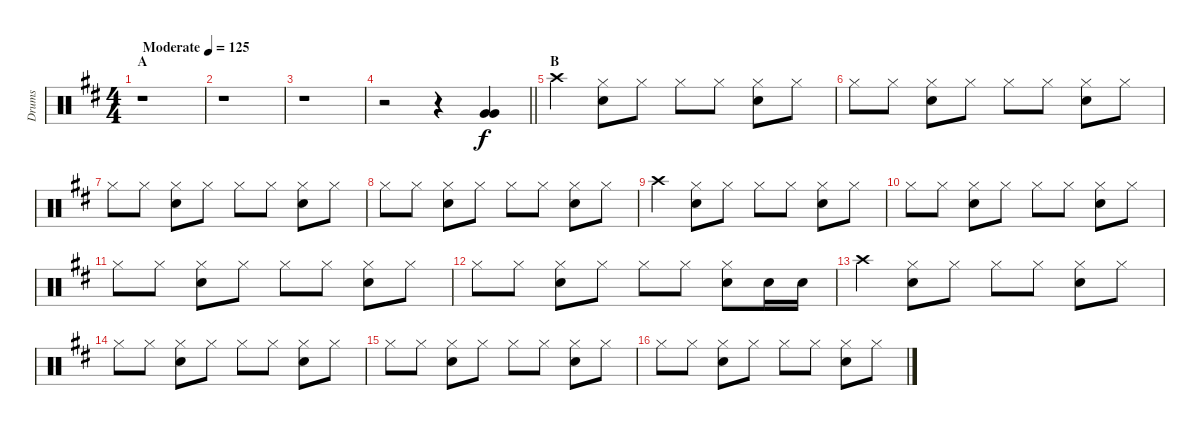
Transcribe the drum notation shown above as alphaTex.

\track ("Drums" "Drums") {instrument percussion}
\staff {score}
\articulation defaults
\ts (4 4)
\section ("" "A")
\tempo (125 "Moderate")
\clef neutral
\ks d
r.1{dy f} |
r.1 |
r.1 |
\barLineRight lightlight
r.2 r.4 ("Very Low Tom (hit)" "Very Low Tom (hit)").4 |
\section ("" "B")
"Crash high (hit)".4 ("Hi-Hat (closed)" "Snare (hit) 2").8 "Hi-Hat (closed)".8 "Hi-Hat (closed)".8 "Hi-Hat (closed)".8 ("Hi-Hat (closed)" "Snare (hit) 2").8 "Hi-Hat (closed)".8 |
"Hi-Hat (closed)".8 "Hi-Hat (closed)".8 ("Hi-Hat (closed)" "Snare (hit) 2").8 "Hi-Hat (closed)".8 "Hi-Hat (closed)".8 "Hi-Hat (closed)".8 ("Hi-Hat (closed)" "Snare (hit) 2").8 "Hi-Hat (closed)".8 |
"Hi-Hat (closed)".8 "Hi-Hat (closed)".8 ("Hi-Hat (closed)" "Snare (hit) 2").8 "Hi-Hat (closed)".8 "Hi-Hat (closed)".8 "Hi-Hat (closed)".8 ("Hi-Hat (closed)" "Snare (hit) 2").8 "Hi-Hat (closed)".8 |
"Hi-Hat (closed)".8 "Hi-Hat (closed)".8 ("Hi-Hat (closed)" "Snare (hit) 2").8 "Hi-Hat (closed)".8 "Hi-Hat (closed)".8 "Hi-Hat (closed)".8 ("Hi-Hat (closed)" "Snare (hit) 2").8 "Hi-Hat (closed)".8 |
"Crash high (hit)".4 ("Hi-Hat (closed)" "Snare (hit) 2").8 "Hi-Hat (closed)".8 "Hi-Hat (closed)".8 "Hi-Hat (closed)".8 ("Hi-Hat (closed)" "Snare (hit) 2").8 "Hi-Hat (closed)".8 |
"Hi-Hat (closed)".8 "Hi-Hat (closed)".8 ("Hi-Hat (closed)" "Snare (hit) 2").8 "Hi-Hat (closed)".8 "Hi-Hat (closed)".8 "Hi-Hat (closed)".8 ("Hi-Hat (closed)" "Snare (hit) 2").8 "Hi-Hat (closed)".8 |
"Hi-Hat (closed)".8 "Hi-Hat (closed)".8 ("Hi-Hat (closed)" "Snare (hit) 2").8 "Hi-Hat (closed)".8 "Hi-Hat (closed)".8 "Hi-Hat (closed)".8 ("Hi-Hat (closed)" "Snare (hit) 2").8 "Hi-Hat (closed)".8 |
"Hi-Hat (closed)".8 "Hi-Hat (closed)".8 ("Hi-Hat (closed)" "Snare (hit) 2").8 "Hi-Hat (closed)".8 "Hi-Hat (closed)".8 "Hi-Hat (closed)".8 ("Hi-Hat (closed)" "Snare (hit) 2").8 "Snare (hit) 2".16 "Snare (hit) 2".16 |
"Crash high (hit)".4 ("Hi-Hat (closed)" "Snare (hit) 2").8 "Hi-Hat (closed)".8 "Hi-Hat (closed)".8 "Hi-Hat (closed)".8 ("Hi-Hat (closed)" "Snare (hit) 2").8 "Hi-Hat (closed)".8 |
"Hi-Hat (closed)".8 "Hi-Hat (closed)".8 ("Hi-Hat (closed)" "Snare (hit) 2").8 "Hi-Hat (closed)".8 "Hi-Hat (closed)".8 "Hi-Hat (closed)".8 ("Hi-Hat (closed)" "Snare (hit) 2").8 "Hi-Hat (closed)".8 |
"Hi-Hat (closed)".8 "Hi-Hat (closed)".8 ("Hi-Hat (closed)" "Snare (hit) 2").8 "Hi-Hat (closed)".8 "Hi-Hat (closed)".8 "Hi-Hat (closed)".8 ("Hi-Hat (closed)" "Snare (hit) 2").8 "Hi-Hat (closed)".8 |
"Hi-Hat (closed)".8 "Hi-Hat (closed)".8 ("Hi-Hat (closed)" "Snare (hit) 2").8 "Hi-Hat (closed)".8 "Hi-Hat (closed)".8 "Hi-Hat (closed)".8 ("Hi-Hat (closed)" "Snare (hit) 2").8 "Hi-Hat (closed)".8
